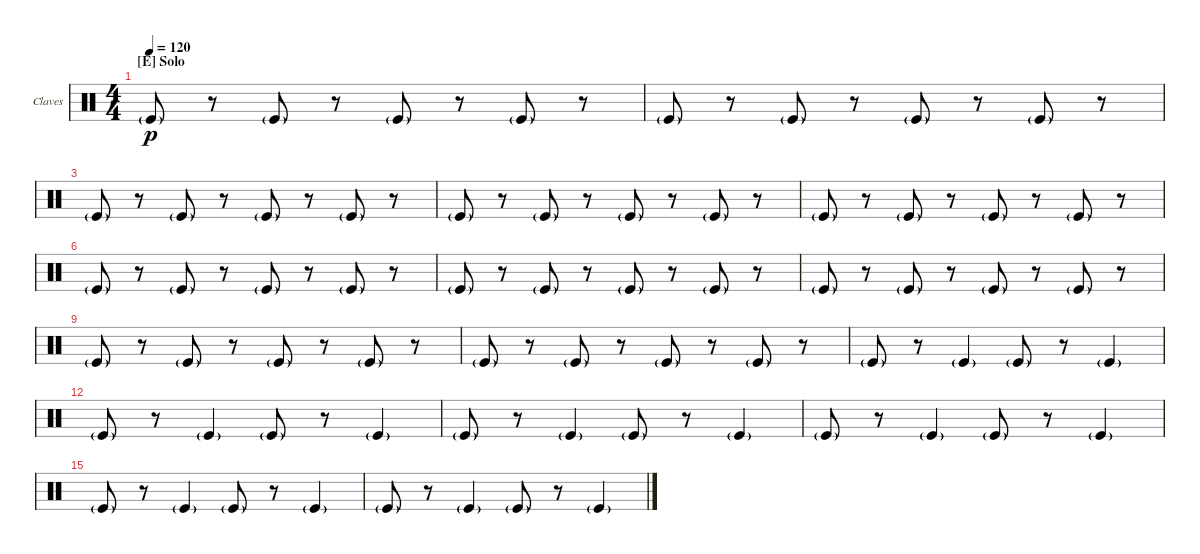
\bracketExtendMode nobrackets
\firstSystemTrackNameOrientation horizontal
\otherSystemsTrackNameOrientation horizontal
\defaultBarNumberDisplay FirstOfSystem
\track ("Claves" "Claves") {instrument percussion}
\staff {score}
\articulation defaults
\ts (4 4)
\section ("E" "Solo")
\tempo 120
\clef neutral
\scale
0.25
\ks c "Kick (hit)"{g}.8{dy p}
r.8 "Kick (hit)"{g}.8 r.8 "Kick (hit)"{g}.8 r.8 "Kick (hit)"{g}.8 r.8 |
\scale
0.25 "Kick (hit)"{g}.8 r.8 "Kick (hit)"{g}.8 r.8 "Kick (hit)"{g}.8 r.8 "Kick (hit)"{g}.8 r.8 |
\scale
0.25 "Kick (hit)"{g}.8 r.8 "Kick (hit)"{g}.8 r.8 "Kick (hit)"{g}.8 r.8 "Kick (hit)"{g}.8 r.8 |
\scale
0.25 "Kick (hit)"{g}.8 r.8 "Kick (hit)"{g}.8 r.8 "Kick (hit)"{g}.8 r.8 "Kick (hit)"{g}.8 r.8 |
\scale
0.25 "Kick (hit)"{g}.8 r.8 "Kick (hit)"{g}.8 r.8 "Kick (hit)"{g}.8 r.8 "Kick (hit)"{g}.8 r.8 |
\scale
0.25 "Kick (hit)"{g}.8 r.8 "Kick (hit)"{g}.8 r.8 "Kick (hit)"{g}.8 r.8 "Kick (hit)"{g}.8 r.8 |
\scale
0.25 "Kick (hit)"{g}.8 r.8 "Kick (hit)"{g}.8 r.8 "Kick (hit)"{g}.8 r.8 "Kick (hit)"{g}.8 r.8 |
\scale
0.25 "Kick (hit)"{g}.8 r.8 "Kick (hit)"{g}.8 r.8 "Kick (hit)"{g}.8 r.8 "Kick (hit)"{g}.8 r.8 |
\scale
0.25 "Kick (hit)"{g}.8 r.8 "Kick (hit)"{g}.8 r.8 "Kick (hit)"{g}.8 r.8 "Kick (hit)"{g}.8 r.8 |
\scale
0.25 "Kick (hit)"{g}.8 r.8 "Kick (hit)"{g}.8 r.8 "Kick (hit)"{g}.8 r.8 "Kick (hit)"{g}.8 r.8 |
\scale
0.25 "Kick (hit)"{g}.8 r.8 "Kick (hit)"{g}.4 "Kick (hit)"{g}.8 r.8 "Kick (hit)"{g}.4 |
\scale
0.25 "Kick (hit)"{g}.8 r.8 "Kick (hit)"{g}.4 "Kick (hit)"{g}.8 r.8 "Kick (hit)"{g}.4 |
\scale
0.25 "Kick (hit)"{g}.8 r.8 "Kick (hit)"{g}.4 "Kick (hit)"{g}.8 r.8 "Kick (hit)"{g}.4 |
\scale
0.25 "Kick (hit)"{g}.8 r.8 "Kick (hit)"{g}.4 "Kick (hit)"{g}.8 r.8 "Kick (hit)"{g}.4 |
\scale
0.25 "Kick (hit)"{g}.8 r.8 "Kick (hit)"{g}.4 "Kick (hit)"{g}.8 r.8 "Kick (hit)"{g}.4 |
\scale
0.25 "Kick (hit)"{g}.8 r.8 "Kick (hit)"{g}.4 "Kick (hit)"{g}.8 r.8 "Kick (hit)"{g}.4
